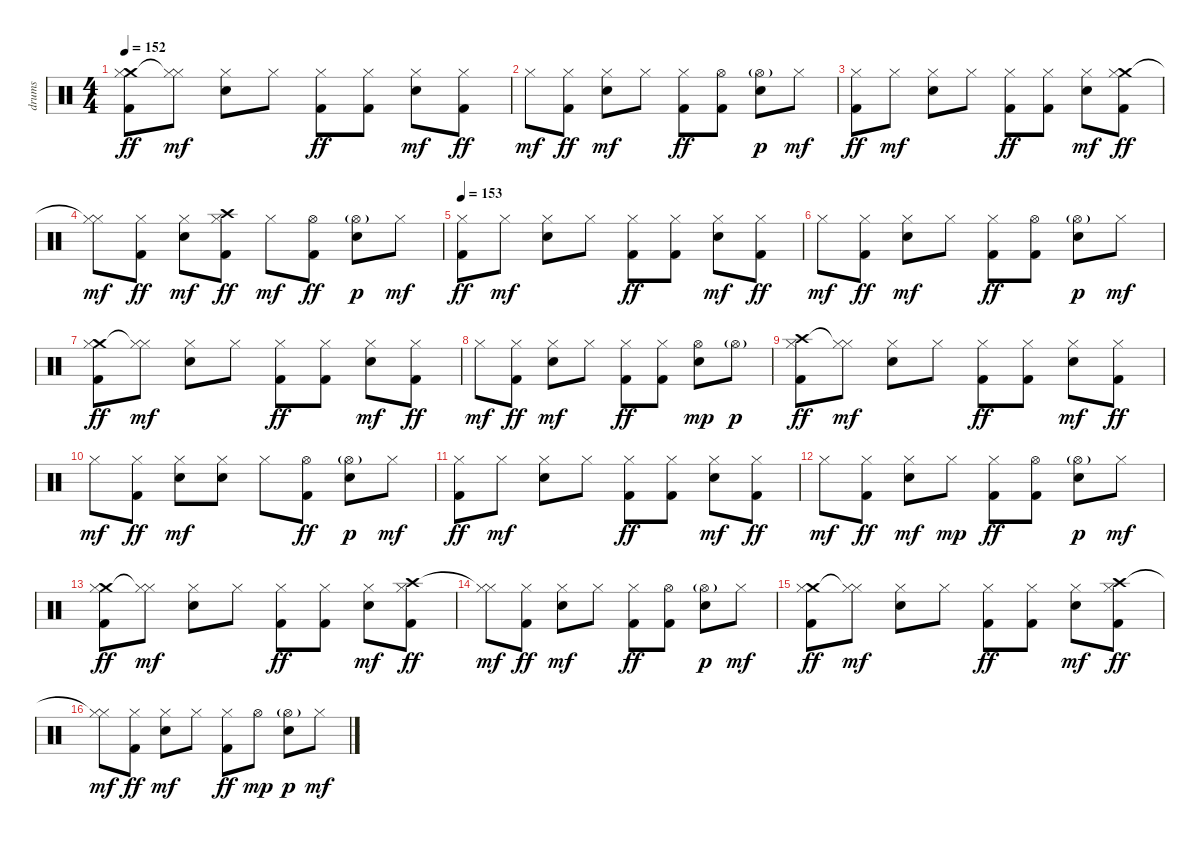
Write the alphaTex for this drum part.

\track ("drums" "drums") {instrument percussion}
\staff {score}
\articulation defaults
\ts (4 4)
\tempo 152
\clef neutral
\ks c
("Crash medium (hit)" "Hi-Hat (closed)" "Kick (hit) 2").8{dy ff} ("Hi-Hat (closed)"{t} "Hi-Hat (closed)").8{dy mf} ("Hi-Hat (closed)" "Electric Snare (hit)").8 "Hi-Hat (closed)".8 ("Hi-Hat (closed)" "Kick (hit) 2").8{dy ff} ("Hi-Hat (closed)" "Kick (hit) 2").8 ("Hi-Hat (closed)" "Electric Snare (hit)").8{dy mf} ("Hi-Hat (closed)" "Kick (hit) 2").8{dy ff} |
"Hi-Hat (closed)".8{dy mf} ("Hi-Hat (closed)" "Kick (hit) 2").8{dy ff} ("Hi-Hat (closed)" "Electric Snare (hit)").8{dy mf} "Hi-Hat (closed)".8 ("Hi-Hat (closed)" "Kick (hit) 2").8{dy ff} ("Hi-Hat (open)" "Kick (hit) 2").8 ("Hi-Hat (open)"{g} "Electric Snare (hit)").8{dy p} "Hi-Hat (closed)".8{dy mf} |
("Hi-Hat (closed)" "Kick (hit) 2").8{dy ff} "Hi-Hat (closed)".8{dy mf} ("Hi-Hat (closed)" "Electric Snare (hit)").8 "Hi-Hat (closed)".8 ("Hi-Hat (closed)" "Kick (hit) 2").8{dy ff} ("Hi-Hat (closed)" "Kick (hit) 2").8 ("Hi-Hat (closed)" "Electric Snare (hit)").8{dy mf} ("Crash medium (hit)" "Hi-Hat (closed)" "Kick (hit) 2").8{dy ff} |
("Hi-Hat (closed)"{t} "Hi-Hat (closed)").8{dy mf} ("Hi-Hat (closed)" "Kick (hit) 2").8{dy ff} ("Hi-Hat (closed)" "Electric Snare (hit)").8{dy mf} ("Crash high (hit)" "Hi-Hat (closed)" "Kick (hit) 2").8{dy ff} "Hi-Hat (closed)".8{dy mf} ("Hi-Hat (open)" "Kick (hit) 2").8{dy ff} ("Hi-Hat (open)"{g} "Electric Snare (hit)").8{dy p} "Hi-Hat (closed)".8{dy mf} |
\tempo 153
("Hi-Hat (closed)" "Kick (hit) 2").8{dy ff} "Hi-Hat (closed)".8{dy mf} ("Hi-Hat (closed)" "Electric Snare (hit)").8 "Hi-Hat (closed)".8 ("Hi-Hat (closed)" "Kick (hit) 2").8{dy ff} ("Hi-Hat (closed)" "Kick (hit) 2").8 ("Hi-Hat (closed)" "Electric Snare (hit)").8{dy mf} ("Hi-Hat (closed)" "Kick (hit) 2").8{dy ff} |
"Hi-Hat (closed)".8{dy mf} ("Hi-Hat (closed)" "Kick (hit) 2").8{dy ff} ("Hi-Hat (closed)" "Electric Snare (hit)").8{dy mf} "Hi-Hat (closed)".8 ("Hi-Hat (closed)" "Kick (hit) 2").8{dy ff} ("Hi-Hat (open)" "Kick (hit) 2").8 ("Hi-Hat (open)"{g} "Electric Snare (hit)").8{dy p} "Hi-Hat (closed)".8{dy mf} |
("Crash medium (hit)" "Hi-Hat (closed)" "Kick (hit) 2").8{dy ff} ("Hi-Hat (closed)"{t} "Hi-Hat (closed)").8{dy mf} ("Hi-Hat (closed)" "Electric Snare (hit)").8 "Hi-Hat (closed)".8 ("Hi-Hat (closed)" "Kick (hit) 2").8{dy ff} ("Hi-Hat (closed)" "Kick (hit) 2").8 ("Hi-Hat (closed)" "Electric Snare (hit)").8{dy mf} ("Hi-Hat (closed)" "Kick (hit) 2").8{dy ff} |
"Hi-Hat (closed)".8{dy mf} ("Hi-Hat (closed)" "Kick (hit) 2").8{dy ff} ("Hi-Hat (closed)" "Electric Snare (hit)").8{dy mf} "Hi-Hat (closed)".8 ("Hi-Hat (closed)" "Kick (hit) 2").8{dy ff} ("Hi-Hat (closed)" "Kick (hit) 2").8 ("Hi-Hat (open)" "Electric Snare (hit)").8{dy mp} "Hi-Hat (open)"{g}.8{dy p} |
("Crash high (hit)" "Hi-Hat (closed)" "Kick (hit) 2").8{dy ff} ("Hi-Hat (closed)"{t} "Hi-Hat (closed)").8{dy mf} ("Hi-Hat (closed)" "Electric Snare (hit)").8 "Hi-Hat (closed)".8 ("Hi-Hat (closed)" "Kick (hit) 2").8{dy ff} ("Hi-Hat (closed)" "Kick (hit) 2").8 ("Hi-Hat (closed)" "Electric Snare (hit)").8{dy mf} ("Hi-Hat (closed)" "Kick (hit) 2").8{dy ff} |
"Hi-Hat (closed)".8{dy mf} ("Hi-Hat (closed)" "Kick (hit) 2").8{dy ff} ("Hi-Hat (closed)" "Electric Snare (hit)").8{dy mf} ("Hi-Hat (closed)" "Electric Snare (hit)").8 "Hi-Hat (closed)".8 ("Hi-Hat (open)" "Kick (hit) 2").8{dy ff} ("Hi-Hat (open)"{g} "Electric Snare (hit)").8{dy p} "Hi-Hat (closed)".8{dy mf} |
("Hi-Hat (closed)" "Kick (hit) 2").8{dy ff} "Hi-Hat (closed)".8{dy mf} ("Hi-Hat (closed)" "Electric Snare (hit)").8 "Hi-Hat (closed)".8 ("Hi-Hat (closed)" "Kick (hit) 2").8{dy ff} ("Hi-Hat (closed)" "Kick (hit) 2").8 ("Hi-Hat (closed)" "Electric Snare (hit)").8{dy mf} ("Hi-Hat (closed)" "Kick (hit) 2").8{dy ff} |
"Hi-Hat (closed)".8{dy mf} ("Hi-Hat (closed)" "Kick (hit) 2").8{dy ff} ("Hi-Hat (closed)" "Electric Snare (hit)").8{dy mf} "Hi-Hat (closed)".8{dy mp} ("Hi-Hat (closed)" "Kick (hit) 2").8{dy ff} ("Hi-Hat (open)" "Kick (hit) 2").8 ("Hi-Hat (open)"{g} "Electric Snare (hit)").8{dy p} "Hi-Hat (closed)".8{dy mf} |
("Crash medium (hit)" "Hi-Hat (closed)" "Kick (hit) 2").8{dy ff} ("Hi-Hat (closed)"{t} "Hi-Hat (closed)").8{dy mf} ("Hi-Hat (closed)" "Electric Snare (hit)").8 "Hi-Hat (closed)".8 ("Hi-Hat (closed)" "Kick (hit) 2").8{dy ff} ("Hi-Hat (closed)" "Kick (hit) 2").8 ("Hi-Hat (closed)" "Electric Snare (hit)").8{dy mf} ("Crash high (hit)" "Hi-Hat (closed)" "Kick (hit) 2").8{dy ff} |
("Hi-Hat (closed)"{t} "Hi-Hat (closed)").8{dy mf} ("Hi-Hat (closed)" "Kick (hit) 2").8{dy ff} ("Hi-Hat (closed)" "Electric Snare (hit)").8{dy mf} "Hi-Hat (closed)".8 ("Hi-Hat (closed)" "Kick (hit) 2").8{dy ff} ("Hi-Hat (open)" "Kick (hit) 2").8 ("Hi-Hat (open)"{g} "Electric Snare (hit)").8{dy p} "Hi-Hat (closed)".8{dy mf} |
("Crash medium (hit)" "Hi-Hat (closed)" "Kick (hit) 2").8{dy ff} ("Hi-Hat (closed)"{t} "Hi-Hat (closed)").8{dy mf} ("Hi-Hat (closed)" "Electric Snare (hit)").8 "Hi-Hat (closed)".8 ("Hi-Hat (closed)" "Kick (hit) 2").8{dy ff} ("Hi-Hat (closed)" "Kick (hit) 2").8 ("Hi-Hat (closed)" "Electric Snare (hit)").8{dy mf} ("Crash high (hit)" "Hi-Hat (closed)" "Kick (hit) 2").8{dy ff} |
("Hi-Hat (closed)"{t} "Hi-Hat (closed)").8{dy mf} ("Hi-Hat (closed)" "Kick (hit) 2").8{dy ff} ("Hi-Hat (closed)" "Electric Snare (hit)").8{dy mf} "Hi-Hat (closed)".8 ("Hi-Hat (closed)" "Kick (hit) 2").8{dy ff} "Hi-Hat (open)".8{dy mp} ("Hi-Hat (open)"{g} "Electric Snare (hit)").8{dy p} "Hi-Hat (closed)".8{dy mf}
